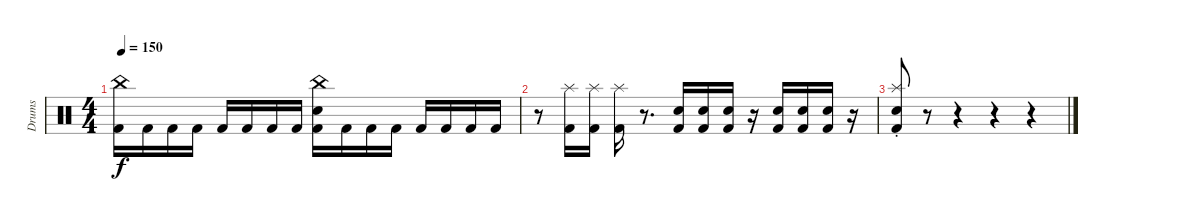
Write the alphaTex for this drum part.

\track ("Drums" "Drums") {instrument percussion}
\staff {score}
\articulation defaults
\ts (4 4)
\tempo 150
\clef neutral
\ks c
("China (hit)" "Kick (hit) 2").16{dy f} "Kick (hit) 2".16 "Kick (hit) 2".16 "Kick (hit) 2".16 "Kick (hit) 2".16 "Kick (hit) 2".16 "Kick (hit) 2".16 "Kick (hit) 2".16 ("China (hit)" "Electric Snare (hit)" "Kick (hit) 2").16 "Kick (hit) 2".16 "Kick (hit) 2".16 "Kick (hit) 2".16 "Kick (hit) 2".16 "Kick (hit) 2".16 "Kick (hit) 2".16 "Kick (hit) 2".16 |
r.8 ("Splash (hit)" "Kick (hit) 2").16 ("Splash (hit)" "Kick (hit) 2").16 ("Splash (hit)" "Kick (hit) 2").16 r.8{d} ("Electric Snare (hit)" "Kick (hit) 2").16 ("Electric Snare (hit)" "Kick (hit) 2").16 ("Electric Snare (hit)" "Kick (hit) 2").16 r.16 ("Electric Snare (hit)" "Kick (hit) 2").16 ("Electric Snare (hit)" "Kick (hit) 2").16 ("Electric Snare (hit)" "Kick (hit) 2").16 r.16 |
("Splash (hit)"{st} "Snare (hit) 2" "Kick (hit) 2").8 r.8 r.4 r.4 r.4
